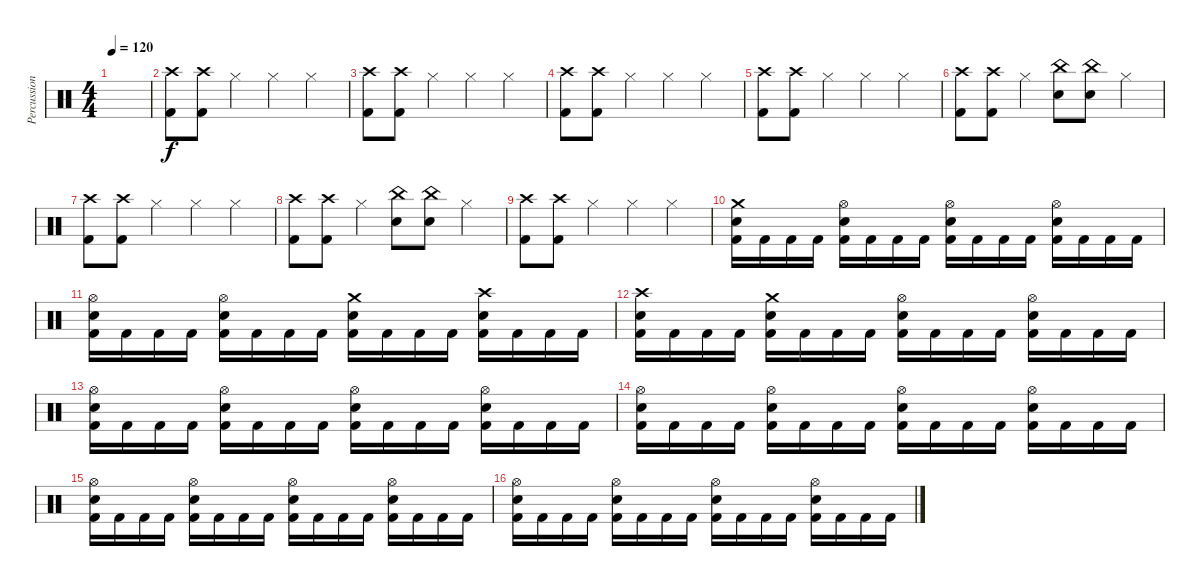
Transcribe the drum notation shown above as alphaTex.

\track ("Percussion" "Percussion") {instrument percussion}
\staff {score}
\articulation defaults
\ts (4 4)
\tempo 120
\clef neutral
\ks c
|
("Crash high (hit)" "Kick (hit) 2").8 ("Crash high (hit)" "Kick (hit) 2").8 "Hi-Hat (closed)".4 "Hi-Hat (closed)".4 "Hi-Hat (closed)".4 |
("Crash high (hit)" "Kick (hit) 2").8 ("Crash high (hit)" "Kick (hit) 2").8 "Hi-Hat (closed)".4 "Hi-Hat (closed)".4 "Hi-Hat (closed)".4 |
("Crash high (hit)" "Kick (hit) 2").8 ("Crash high (hit)" "Kick (hit) 2").8 "Hi-Hat (closed)".4 "Hi-Hat (closed)".4 "Hi-Hat (closed)".4 |
("Crash high (hit)" "Kick (hit) 2").8 ("Crash high (hit)" "Kick (hit) 2").8 "Hi-Hat (closed)".4 "Hi-Hat (closed)".4 "Hi-Hat (closed)".4 |
("Crash high (hit)" "Kick (hit) 2").8 ("Crash high (hit)" "Kick (hit) 2").8 "Hi-Hat (closed)".4 ("China (hit)" "Snare (hit) 2").8 ("China (hit)" "Snare (hit) 2").8 "Hi-Hat (closed)".4 |
("Crash high (hit)" "Kick (hit) 2").8 ("Crash high (hit)" "Kick (hit) 2").8 "Hi-Hat (closed)".4 "Hi-Hat (closed)".4 "Hi-Hat (closed)".4 |
("Crash high (hit)" "Kick (hit) 2").8 ("Crash high (hit)" "Kick (hit) 2").8 "Hi-Hat (closed)".4 ("China (hit)" "Snare (hit) 2").8 ("China (hit)" "Snare (hit) 2").8 "Hi-Hat (closed)".4 |
("Crash high (hit)" "Kick (hit) 2").8 ("Crash high (hit)" "Kick (hit) 2").8 "Hi-Hat (closed)".4 "Hi-Hat (closed)".4 "Hi-Hat (closed)".4 |
("Crash medium (hit)" "Snare (hit) 2" "Kick (hit) 2").16 "Kick (hit) 2".16 "Kick (hit) 2".16 "Kick (hit) 2".16 ("Hi-Hat (open)" "Snare (hit) 2" "Kick (hit) 2").16 "Kick (hit) 2".16 "Kick (hit) 2".16 "Kick (hit) 2".16 ("Hi-Hat (open)" "Snare (hit) 2" "Kick (hit) 2").16 "Kick (hit) 2".16 "Kick (hit) 2".16 "Kick (hit) 2".16 ("Hi-Hat (open)" "Snare (hit) 2" "Kick (hit) 2").16 "Kick (hit) 2".16 "Kick (hit) 2".16 "Kick (hit) 2".16 |
("Hi-Hat (open)" "Snare (hit) 2" "Kick (hit) 2").16 "Kick (hit) 2".16 "Kick (hit) 2".16 "Kick (hit) 2".16 ("Hi-Hat (open)" "Snare (hit) 2" "Kick (hit) 2").16 "Kick (hit) 2".16 "Kick (hit) 2".16 "Kick (hit) 2".16 ("Crash medium (hit)" "Snare (hit) 2" "Kick (hit) 2").16 "Kick (hit) 2".16 "Kick (hit) 2".16 "Kick (hit) 2".16 ("Crash high (hit)" "Snare (hit) 2" "Kick (hit) 2").16 "Kick (hit) 2".16 "Kick (hit) 2".16 "Kick (hit) 2".16 |
("Crash high (hit)" "Snare (hit) 2" "Kick (hit) 2").16 "Kick (hit) 2".16 "Kick (hit) 2".16 "Kick (hit) 2".16 ("Crash medium (hit)" "Snare (hit) 2" "Kick (hit) 2").16 "Kick (hit) 2".16 "Kick (hit) 2".16 "Kick (hit) 2".16 ("Hi-Hat (open)" "Snare (hit) 2" "Kick (hit) 2").16 "Kick (hit) 2".16 "Kick (hit) 2".16 "Kick (hit) 2".16 ("Hi-Hat (open)" "Snare (hit) 2" "Kick (hit) 2").16 "Kick (hit) 2".16 "Kick (hit) 2".16 "Kick (hit) 2".16 |
("Hi-Hat (open)" "Snare (hit) 2" "Kick (hit) 2").16 "Kick (hit) 2".16 "Kick (hit) 2".16 "Kick (hit) 2".16 ("Hi-Hat (open)" "Snare (hit) 2" "Kick (hit) 2").16 "Kick (hit) 2".16 "Kick (hit) 2".16 "Kick (hit) 2".16 ("Hi-Hat (open)" "Snare (hit) 2" "Kick (hit) 2").16 "Kick (hit) 2".16 "Kick (hit) 2".16 "Kick (hit) 2".16 ("Hi-Hat (open)" "Snare (hit) 2" "Kick (hit) 2").16 "Kick (hit) 2".16 "Kick (hit) 2".16 "Kick (hit) 2".16 |
("Hi-Hat (open)" "Snare (hit) 2" "Kick (hit) 2").16 "Kick (hit) 2".16 "Kick (hit) 2".16 "Kick (hit) 2".16 ("Hi-Hat (open)" "Snare (hit) 2" "Kick (hit) 2").16 "Kick (hit) 2".16 "Kick (hit) 2".16 "Kick (hit) 2".16 ("Hi-Hat (open)" "Snare (hit) 2" "Kick (hit) 2").16 "Kick (hit) 2".16 "Kick (hit) 2".16 "Kick (hit) 2".16 ("Hi-Hat (open)" "Snare (hit) 2" "Kick (hit) 2").16 "Kick (hit) 2".16 "Kick (hit) 2".16 "Kick (hit) 2".16 |
("Hi-Hat (open)" "Snare (hit) 2" "Kick (hit) 2").16 "Kick (hit) 2".16 "Kick (hit) 2".16 "Kick (hit) 2".16 ("Hi-Hat (open)" "Snare (hit) 2" "Kick (hit) 2").16 "Kick (hit) 2".16 "Kick (hit) 2".16 "Kick (hit) 2".16 ("Hi-Hat (open)" "Snare (hit) 2" "Kick (hit) 2").16 "Kick (hit) 2".16 "Kick (hit) 2".16 "Kick (hit) 2".16 ("Hi-Hat (open)" "Snare (hit) 2" "Kick (hit) 2").16 "Kick (hit) 2".16 "Kick (hit) 2".16 "Kick (hit) 2".16 |
("Hi-Hat (open)" "Snare (hit) 2" "Kick (hit) 2").16 "Kick (hit) 2".16 "Kick (hit) 2".16 "Kick (hit) 2".16 ("Hi-Hat (open)" "Snare (hit) 2" "Kick (hit) 2").16 "Kick (hit) 2".16 "Kick (hit) 2".16 "Kick (hit) 2".16 ("Hi-Hat (open)" "Snare (hit) 2" "Kick (hit) 2").16 "Kick (hit) 2".16 "Kick (hit) 2".16 "Kick (hit) 2".16 ("Hi-Hat (open)" "Snare (hit) 2" "Kick (hit) 2").16 "Kick (hit) 2".16 "Kick (hit) 2".16 "Kick (hit) 2".16
